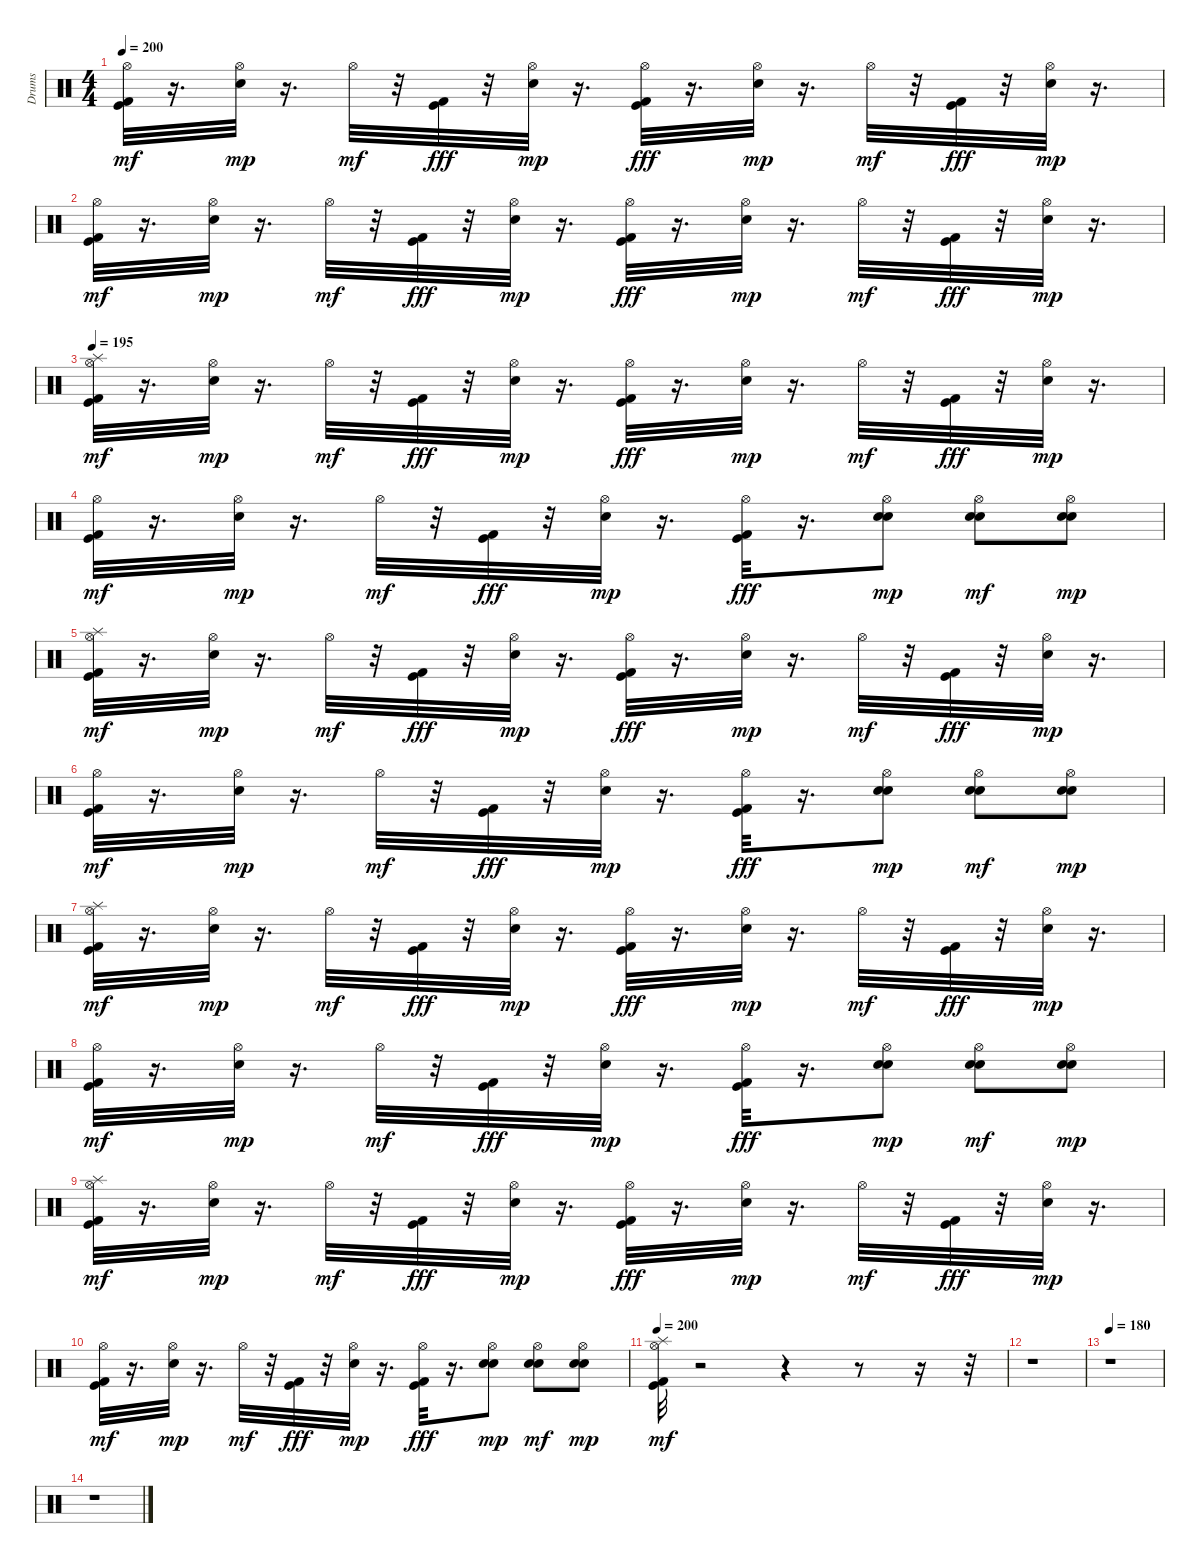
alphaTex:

\track ("Drums" "Drums") {instrument percussion}
\staff {score}
\articulation defaults
\ts (4 4)
\tempo 200
\clef neutral
\ks c
("Kick (hit) 2" "Kick (hit)" "Hi-Hat (open)").32{dy mf} r.16{d} ("Hi-Hat (open)" "Snare (hit) 2").32{dy mp} r.16{d} "Hi-Hat (open)".32{dy mf} r.32 ("Kick (hit)" "Kick (hit) 2").32{dy fff} r.32 ("Hi-Hat (open)" "Snare (hit) 2").32{dy mp} r.16{d} ("Hi-Hat (open)" "Kick (hit) 2" "Kick (hit)").32{dy fff} r.16{d} ("Hi-Hat (open)" "Snare (hit) 2").32{dy mp} r.16{d} "Hi-Hat (open)".32{dy mf} r.32 ("Kick (hit)" "Kick (hit) 2").32{dy fff} r.32 ("Hi-Hat (open)" "Snare (hit) 2").32{dy mp} r.16{d} |
("Kick (hit) 2" "Kick (hit)" "Hi-Hat (open)").32{dy mf} r.16{d} ("Hi-Hat (open)" "Snare (hit) 2").32{dy mp} r.16{d} "Hi-Hat (open)".32{dy mf} r.32 ("Kick (hit)" "Kick (hit) 2").32{dy fff} r.32 ("Hi-Hat (open)" "Snare (hit) 2").32{dy mp} r.16{d} ("Hi-Hat (open)" "Kick (hit) 2" "Kick (hit)").32{dy fff} r.16{d} ("Hi-Hat (open)" "Snare (hit) 2").32{dy mp} r.16{d} "Hi-Hat (open)".32{dy mf} r.32 ("Kick (hit)" "Kick (hit) 2").32{dy fff} r.32 ("Hi-Hat (open)" "Snare (hit) 2").32{dy mp} r.16{d} |
\tempo 195
("Kick (hit) 2" "Kick (hit)" "Hi-Hat (open)" "Splash (hit)").32{dy mf} r.16{d} ("Hi-Hat (open)" "Snare (hit) 2").32{dy mp} r.16{d} "Hi-Hat (open)".32{dy mf} r.32 ("Kick (hit)" "Kick (hit) 2").32{dy fff} r.32 ("Hi-Hat (open)" "Snare (hit) 2").32{dy mp} r.16{d} ("Hi-Hat (open)" "Kick (hit) 2" "Kick (hit)").32{dy fff} r.16{d} ("Hi-Hat (open)" "Snare (hit) 2").32{dy mp} r.16{d} "Hi-Hat (open)".32{dy mf} r.32 ("Kick (hit)" "Kick (hit) 2").32{dy fff} r.32 ("Hi-Hat (open)" "Snare (hit) 2").32{dy mp} r.16{d} |
("Kick (hit) 2" "Kick (hit)" "Hi-Hat (open)").32{dy mf} r.16{d} ("Hi-Hat (open)" "Snare (hit) 2").32{dy mp} r.16{d} "Hi-Hat (open)".32{dy mf} r.32 ("Kick (hit)" "Kick (hit) 2").32{dy fff} r.32 ("Hi-Hat (open)" "Snare (hit) 2").32{dy mp} r.16{d} ("Hi-Hat (open)" "Kick (hit) 2" "Kick (hit)").32{dy fff} r.16{d} ("Hi-Hat (open)" "Snare (hit) 2" "Snare (hit) 2").8{dy mp} ("Hi-Hat (open)" "Snare (hit) 2" "Snare (hit) 2").8{dy mf} ("Hi-Hat (open)" "Snare (hit) 2" "Snare (hit) 2").8{dy mp} |
("Kick (hit) 2" "Kick (hit)" "Hi-Hat (open)" "Splash (hit)").32{dy mf} r.16{d} ("Hi-Hat (open)" "Snare (hit) 2").32{dy mp} r.16{d} "Hi-Hat (open)".32{dy mf} r.32 ("Kick (hit)" "Kick (hit) 2").32{dy fff} r.32 ("Hi-Hat (open)" "Snare (hit) 2").32{dy mp} r.16{d} ("Hi-Hat (open)" "Kick (hit) 2" "Kick (hit)").32{dy fff} r.16{d} ("Hi-Hat (open)" "Snare (hit) 2").32{dy mp} r.16{d} "Hi-Hat (open)".32{dy mf} r.32 ("Kick (hit)" "Kick (hit) 2").32{dy fff} r.32 ("Hi-Hat (open)" "Snare (hit) 2").32{dy mp} r.16{d} |
("Kick (hit) 2" "Kick (hit)" "Hi-Hat (open)").32{dy mf} r.16{d} ("Hi-Hat (open)" "Snare (hit) 2").32{dy mp} r.16{d} "Hi-Hat (open)".32{dy mf} r.32 ("Kick (hit)" "Kick (hit) 2").32{dy fff} r.32 ("Hi-Hat (open)" "Snare (hit) 2").32{dy mp} r.16{d} ("Hi-Hat (open)" "Kick (hit) 2" "Kick (hit)").32{dy fff} r.16{d} ("Hi-Hat (open)" "Snare (hit) 2" "Snare (hit) 2").8{dy mp} ("Hi-Hat (open)" "Snare (hit) 2" "Snare (hit) 2").8{dy mf} ("Hi-Hat (open)" "Snare (hit) 2" "Snare (hit) 2").8{dy mp} |
("Kick (hit) 2" "Kick (hit)" "Hi-Hat (open)" "Splash (hit)").32{dy mf} r.16{d} ("Hi-Hat (open)" "Snare (hit) 2").32{dy mp} r.16{d} "Hi-Hat (open)".32{dy mf} r.32 ("Kick (hit)" "Kick (hit) 2").32{dy fff} r.32 ("Hi-Hat (open)" "Snare (hit) 2").32{dy mp} r.16{d} ("Hi-Hat (open)" "Kick (hit) 2" "Kick (hit)").32{dy fff} r.16{d} ("Hi-Hat (open)" "Snare (hit) 2").32{dy mp} r.16{d} "Hi-Hat (open)".32{dy mf} r.32 ("Kick (hit)" "Kick (hit) 2").32{dy fff} r.32 ("Hi-Hat (open)" "Snare (hit) 2").32{dy mp} r.16{d} |
("Kick (hit) 2" "Kick (hit)" "Hi-Hat (open)").32{dy mf} r.16{d} ("Hi-Hat (open)" "Snare (hit) 2").32{dy mp} r.16{d} "Hi-Hat (open)".32{dy mf} r.32 ("Kick (hit)" "Kick (hit) 2").32{dy fff} r.32 ("Hi-Hat (open)" "Snare (hit) 2").32{dy mp} r.16{d} ("Hi-Hat (open)" "Kick (hit) 2" "Kick (hit)").32{dy fff} r.16{d} ("Hi-Hat (open)" "Snare (hit) 2" "Snare (hit) 2").8{dy mp} ("Hi-Hat (open)" "Snare (hit) 2" "Snare (hit) 2").8{dy mf} ("Hi-Hat (open)" "Snare (hit) 2" "Snare (hit) 2").8{dy mp} |
("Kick (hit) 2" "Kick (hit)" "Hi-Hat (open)" "Splash (hit)").32{dy mf} r.16{d} ("Hi-Hat (open)" "Snare (hit) 2").32{dy mp} r.16{d} "Hi-Hat (open)".32{dy mf} r.32 ("Kick (hit)" "Kick (hit) 2").32{dy fff} r.32 ("Hi-Hat (open)" "Snare (hit) 2").32{dy mp} r.16{d} ("Hi-Hat (open)" "Kick (hit) 2" "Kick (hit)").32{dy fff} r.16{d} ("Hi-Hat (open)" "Snare (hit) 2").32{dy mp} r.16{d} "Hi-Hat (open)".32{dy mf} r.32 ("Kick (hit)" "Kick (hit) 2").32{dy fff} r.32 ("Hi-Hat (open)" "Snare (hit) 2").32{dy mp} r.16{d} |
("Kick (hit) 2" "Kick (hit)" "Hi-Hat (open)").32{dy mf} r.16{d} ("Hi-Hat (open)" "Snare (hit) 2").32{dy mp} r.16{d} "Hi-Hat (open)".32{dy mf} r.32 ("Kick (hit)" "Kick (hit) 2").32{dy fff} r.32 ("Hi-Hat (open)" "Snare (hit) 2").32{dy mp} r.16{d} ("Hi-Hat (open)" "Kick (hit) 2" "Kick (hit)").32{dy fff} r.16{d} ("Hi-Hat (open)" "Snare (hit) 2" "Snare (hit) 2").8{dy mp} ("Hi-Hat (open)" "Snare (hit) 2" "Snare (hit) 2").8{dy mf} ("Hi-Hat (open)" "Snare (hit) 2" "Snare (hit) 2").8{dy mp} |
\tempo 200
("Kick (hit) 2" "Kick (hit)" "Hi-Hat (open)" "Splash (hit)").32{dy mf} r.2 r.4 r.8 r.16 r.32 |
r.1 |
\tempo 180
r.1 |
r.1
